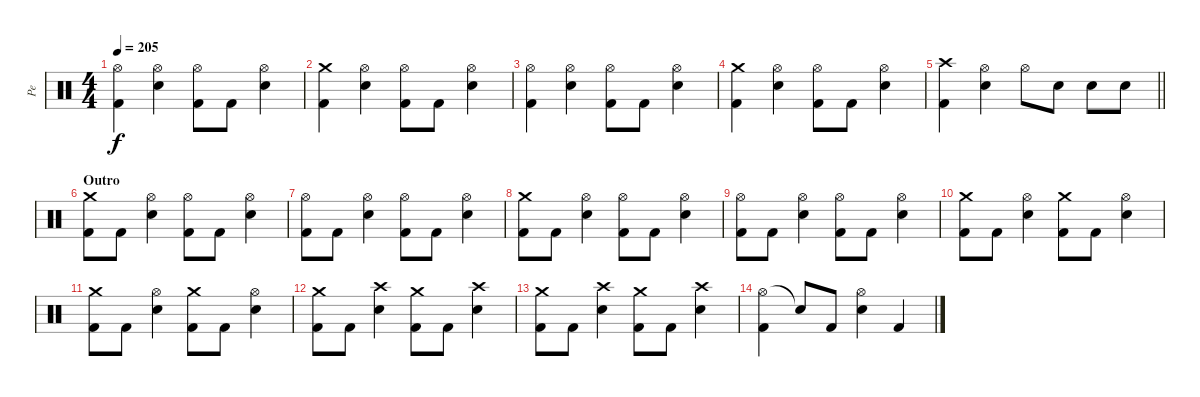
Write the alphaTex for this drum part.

\track ("Pe" "Pe") {instrument percussion}
\staff {score}
\articulation defaults
\ts (4 4)
\tempo 205
\clef neutral
\ks c
("Hi-Hat (open)" "Kick (hit) 2").4{dy f} ("Hi-Hat (open)" "Electric Snare (hit)").4 ("Hi-Hat (open)" "Kick (hit) 2").8 "Kick (hit) 2".8 ("Hi-Hat (open)" "Electric Snare (hit)").4 |
("Crash medium (hit)" "Kick (hit) 2").4 ("Hi-Hat (open)" "Electric Snare (hit)").4 ("Hi-Hat (open)" "Kick (hit) 2").8 "Kick (hit) 2".8 ("Hi-Hat (open)" "Electric Snare (hit)").4 |
("Hi-Hat (open)" "Kick (hit) 2").4 ("Hi-Hat (open)" "Electric Snare (hit)").4 ("Hi-Hat (open)" "Kick (hit) 2").8 "Kick (hit) 2".8 ("Hi-Hat (open)" "Electric Snare (hit)").4 |
("Crash medium (hit)" "Kick (hit) 2").4 ("Hi-Hat (open)" "Electric Snare (hit)").4 ("Hi-Hat (open)" "Kick (hit) 2").8 "Kick (hit) 2".8 ("Hi-Hat (open)" "Electric Snare (hit)").4 |
\barLineRight lightlight
("Crash high (hit)" "Kick (hit) 2").4 ("Hi-Hat (open)" "Electric Snare (hit)").4 "Hi-Hat (open)".8 "Electric Snare (hit)".8 "Electric Snare (hit)".8 "Electric Snare (hit)".8 |
\section ("" "Outro")
("Crash medium (hit)" "Kick (hit) 2").8 "Kick (hit) 2".8 ("Hi-Hat (open)" "Electric Snare (hit)").4 ("Hi-Hat (open)" "Kick (hit) 2").8 "Kick (hit) 2".8 ("Hi-Hat (open)" "Electric Snare (hit)").4 |
("Hi-Hat (open)" "Kick (hit) 2").8 "Kick (hit) 2".8 ("Hi-Hat (open)" "Electric Snare (hit)").4 ("Hi-Hat (open)" "Kick (hit) 2").8 "Kick (hit) 2".8 ("Hi-Hat (open)" "Electric Snare (hit)").4 |
("Crash medium (hit)" "Kick (hit) 2").8 "Kick (hit) 2".8 ("Hi-Hat (open)" "Electric Snare (hit)").4 ("Hi-Hat (open)" "Kick (hit) 2").8 "Kick (hit) 2".8 ("Hi-Hat (open)" "Electric Snare (hit)").4 |
("Hi-Hat (open)" "Kick (hit) 2").8 "Kick (hit) 2".8 ("Hi-Hat (open)" "Electric Snare (hit)").4 ("Hi-Hat (open)" "Kick (hit) 2").8 "Kick (hit) 2".8 ("Hi-Hat (open)" "Electric Snare (hit)").4 |
("Crash medium (hit)" "Kick (hit) 2").8 "Kick (hit) 2".8 ("Hi-Hat (open)" "Electric Snare (hit)").4 ("Crash medium (hit)" "Kick (hit) 2").8 "Kick (hit) 2".8 ("Hi-Hat (open)" "Electric Snare (hit)").4 |
("Crash medium (hit)" "Kick (hit) 2").8 "Kick (hit) 2".8 ("Hi-Hat (open)" "Electric Snare (hit)").4 ("Crash medium (hit)" "Kick (hit) 2").8 "Kick (hit) 2".8 ("Hi-Hat (open)" "Electric Snare (hit)").4 |
("Crash medium (hit)" "Kick (hit) 2").8 "Kick (hit) 2".8 ("Crash high (hit)" "Electric Snare (hit)").4 ("Crash medium (hit)" "Kick (hit) 2").8 "Kick (hit) 2".8 ("Crash high (hit)" "Electric Snare (hit)").4 |
("Crash medium (hit)" "Kick (hit) 2").8 "Kick (hit) 2".8 ("Crash high (hit)" "Electric Snare (hit)").4 ("Crash medium (hit)" "Kick (hit) 2").8 "Kick (hit) 2".8 ("Crash high (hit)" "Electric Snare (hit)").4 |
("Hi-Hat (open)" "Kick (hit) 2").4 "Snare (hit)"{t}.8 "Kick (hit) 2".8 ("Hi-Hat (open)" "Electric Snare (hit)").4 "Kick (hit) 2".4
